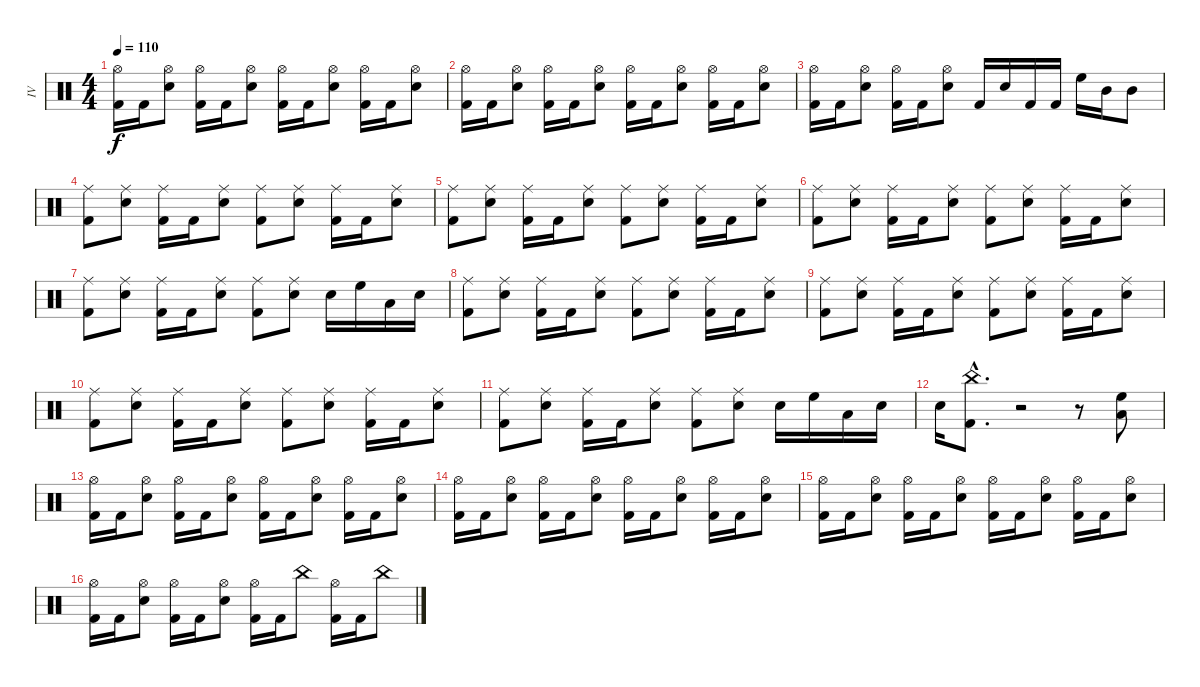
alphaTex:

\track ("IV" "IV") {instrument percussion}
\staff {score}
\articulation defaults
\ts (4 4)
\tempo 110
\clef neutral
\ks c
("Hi-Hat (open)" "Kick (hit) 2").16{dy f} "Kick (hit) 2".16 ("Hi-Hat (open)" "Snare (hit) 2").8 ("Hi-Hat (open)" "Kick (hit) 2").16 "Kick (hit) 2".16 ("Hi-Hat (open)" "Snare (hit) 2").8 ("Hi-Hat (open)" "Kick (hit) 2").16 "Kick (hit) 2".16 ("Hi-Hat (open)" "Snare (hit) 2").8 ("Hi-Hat (open)" "Kick (hit) 2").16 "Kick (hit) 2".16 ("Hi-Hat (open)" "Snare (hit) 2").8 |
("Hi-Hat (open)" "Kick (hit) 2").16 "Kick (hit) 2".16 ("Hi-Hat (open)" "Snare (hit) 2").8 ("Hi-Hat (open)" "Kick (hit) 2").16 "Kick (hit) 2".16 ("Hi-Hat (open)" "Snare (hit) 2").8 ("Hi-Hat (open)" "Kick (hit) 2").16 "Kick (hit) 2".16 ("Hi-Hat (open)" "Snare (hit) 2").8 ("Hi-Hat (open)" "Kick (hit) 2").16 "Kick (hit) 2".16 ("Hi-Hat (open)" "Snare (hit) 2").8 |
("Hi-Hat (open)" "Kick (hit) 2").16 "Kick (hit) 2".16 ("Hi-Hat (open)" "Snare (hit) 2").8 ("Hi-Hat (open)" "Kick (hit) 2").16 "Kick (hit) 2".16 ("Hi-Hat (open)" "Snare (hit) 2").8 "Kick (hit) 2".16 "Snare (hit) 2".16 "Kick (hit) 2".16 "Kick (hit) 2".16 "High Floor Tom (hit)".16 "Mid Tom (hit)".16 "Mid Tom (hit)".8 |
("Ride (middle)" "Kick (hit) 2").8 ("Ride (middle)" "Snare (hit) 2").8 ("Ride (middle)" "Kick (hit) 2").16 "Kick (hit) 2".16 ("Ride (middle)" "Snare (hit) 2").8 ("Ride (middle)" "Kick (hit) 2").8 ("Ride (middle)" "Snare (hit) 2").8 ("Ride (middle)" "Kick (hit) 2").16 "Kick (hit) 2".16 ("Ride (middle)" "Snare (hit) 2").8 |
("Ride (middle)" "Kick (hit) 2").8 ("Ride (middle)" "Snare (hit) 2").8 ("Ride (middle)" "Kick (hit) 2").16 "Kick (hit) 2".16 ("Ride (middle)" "Snare (hit) 2").8 ("Ride (middle)" "Kick (hit) 2").8 ("Ride (middle)" "Snare (hit) 2").8 ("Ride (middle)" "Kick (hit) 2").16 "Kick (hit) 2".16 ("Ride (middle)" "Snare (hit) 2").8 |
("Ride (middle)" "Kick (hit) 2").8 ("Ride (middle)" "Snare (hit) 2").8 ("Ride (middle)" "Kick (hit) 2").16 "Kick (hit) 2".16 ("Ride (middle)" "Snare (hit) 2").8 ("Ride (middle)" "Kick (hit) 2").8 ("Ride (middle)" "Snare (hit) 2").8 ("Ride (middle)" "Kick (hit) 2").16 "Kick (hit) 2".16 ("Ride (middle)" "Snare (hit) 2").8 |
("Ride (middle)" "Kick (hit) 2").8 ("Ride (middle)" "Snare (hit) 2").8 ("Ride (middle)" "Kick (hit) 2").16 "Kick (hit) 2".16 ("Ride (middle)" "Snare (hit) 2").8 ("Ride (middle)" "Kick (hit) 2").8 ("Ride (middle)" "Snare (hit) 2").8 "Snare (hit) 2".16 "High Floor Tom (hit)".16 "Low Tom (hit)".16 "Snare (hit) 2".16 |
("Ride (middle)" "Kick (hit) 2").8 ("Ride (middle)" "Snare (hit) 2").8 ("Ride (middle)" "Kick (hit) 2").16 "Kick (hit) 2".16 ("Ride (middle)" "Snare (hit) 2").8 ("Ride (middle)" "Kick (hit) 2").8 ("Ride (middle)" "Snare (hit) 2").8 ("Ride (middle)" "Kick (hit) 2").16 "Kick (hit) 2".16 ("Ride (middle)" "Snare (hit) 2").8 |
("Ride (middle)" "Kick (hit) 2").8 ("Ride (middle)" "Snare (hit) 2").8 ("Ride (middle)" "Kick (hit) 2").16 "Kick (hit) 2".16 ("Ride (middle)" "Snare (hit) 2").8 ("Ride (middle)" "Kick (hit) 2").8 ("Ride (middle)" "Snare (hit) 2").8 ("Ride (middle)" "Kick (hit) 2").16 "Kick (hit) 2".16 ("Ride (middle)" "Snare (hit) 2").8 |
("Ride (middle)" "Kick (hit) 2").8 ("Ride (middle)" "Snare (hit) 2").8 ("Ride (middle)" "Kick (hit) 2").16 "Kick (hit) 2".16 ("Ride (middle)" "Snare (hit) 2").8 ("Ride (middle)" "Kick (hit) 2").8 ("Ride (middle)" "Snare (hit) 2").8 ("Ride (middle)" "Kick (hit) 2").16 "Kick (hit) 2".16 ("Ride (middle)" "Snare (hit) 2").8 |
("Ride (middle)" "Kick (hit) 2").8 ("Ride (middle)" "Snare (hit) 2").8 ("Ride (middle)" "Kick (hit) 2").16 "Kick (hit) 2".16 ("Ride (middle)" "Snare (hit) 2").8 ("Ride (middle)" "Kick (hit) 2").8 ("Ride (middle)" "Snare (hit) 2").8 "Snare (hit) 2".16 "High Floor Tom (hit)".16 "Low Tom (hit)".16 "Snare (hit) 2".16 |
"Snare (hit) 2".16 ("China (hit)"{hac} "Kick (hit) 2"{hac}).8{d} r.2 r.8 ("High Floor Tom (hit)" "Low Tom (hit)").8 |
("Hi-Hat (open)" "Kick (hit) 2").16 "Kick (hit) 2".16 ("Hi-Hat (open)" "Snare (hit) 2").8 ("Hi-Hat (open)" "Kick (hit) 2").16 "Kick (hit) 2".16 ("Hi-Hat (open)" "Snare (hit) 2").8 ("Hi-Hat (open)" "Kick (hit) 2").16 "Kick (hit) 2".16 ("Hi-Hat (open)" "Snare (hit) 2").8 ("Hi-Hat (open)" "Kick (hit) 2").16 "Kick (hit) 2".16 ("Hi-Hat (open)" "Snare (hit) 2").8 |
("Hi-Hat (open)" "Kick (hit) 2").16 "Kick (hit) 2".16 ("Hi-Hat (open)" "Snare (hit) 2").8 ("Hi-Hat (open)" "Kick (hit) 2").16 "Kick (hit) 2".16 ("Hi-Hat (open)" "Snare (hit) 2").8 ("Hi-Hat (open)" "Kick (hit) 2").16 "Kick (hit) 2".16 ("Hi-Hat (open)" "Snare (hit) 2").8 ("Hi-Hat (open)" "Kick (hit) 2").16 "Kick (hit) 2".16 ("Hi-Hat (open)" "Snare (hit) 2").8 |
("Hi-Hat (open)" "Kick (hit) 2").16 "Kick (hit) 2".16 ("Hi-Hat (open)" "Snare (hit) 2").8 ("Hi-Hat (open)" "Kick (hit) 2").16 "Kick (hit) 2".16 ("Hi-Hat (open)" "Snare (hit) 2").8 ("Hi-Hat (open)" "Kick (hit) 2").16 "Kick (hit) 2".16 ("Hi-Hat (open)" "Snare (hit) 2").8 ("Hi-Hat (open)" "Kick (hit) 2").16 "Kick (hit) 2".16 ("Hi-Hat (open)" "Snare (hit) 2").8 |
("Hi-Hat (open)" "Kick (hit) 2").16 "Kick (hit) 2".16 ("Hi-Hat (open)" "Snare (hit) 2").8 ("Hi-Hat (open)" "Kick (hit) 2").16 "Kick (hit) 2".16 ("Hi-Hat (open)" "Snare (hit) 2").8 ("Hi-Hat (open)" "Kick (hit) 2").16 "Kick (hit) 2".16 "China (hit)".8 ("Hi-Hat (open)" "Kick (hit) 2").16 "Kick (hit) 2".16 "China (hit)".8
